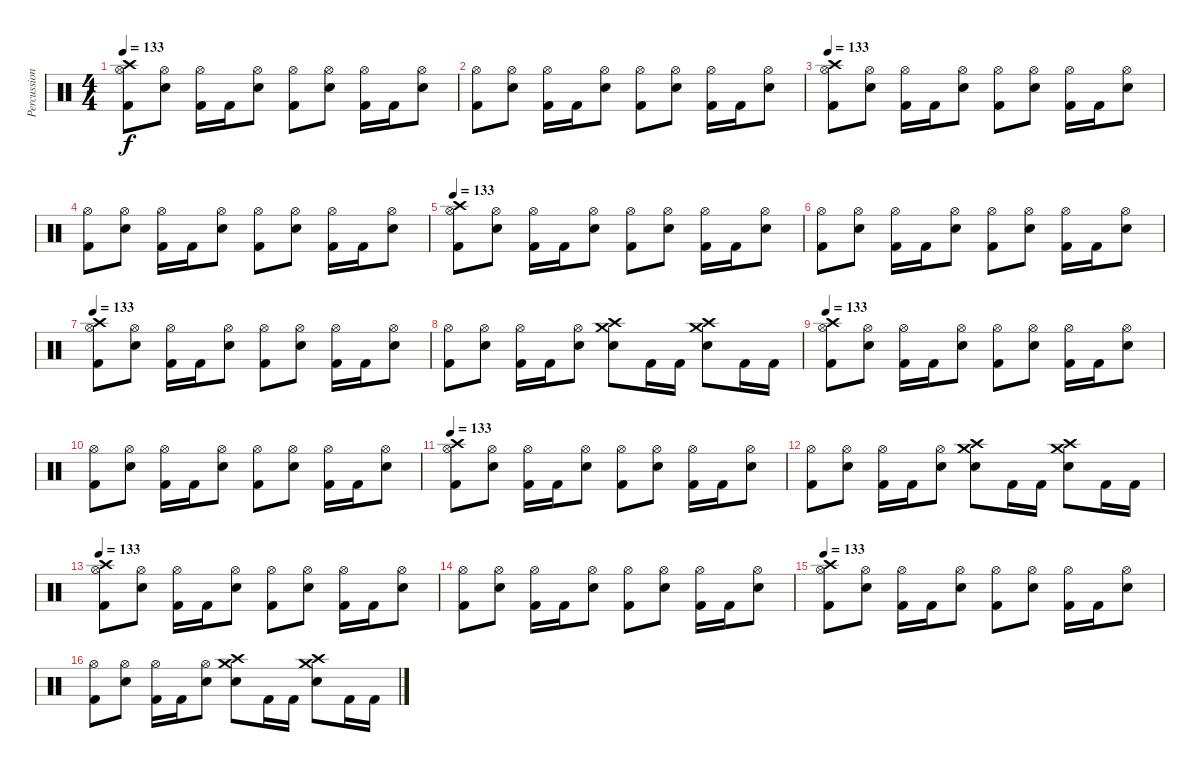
\track ("Percussion" "Percussion") {instrument percussion}
\staff {score}
\articulation defaults
\ts (4 4)
\section ("" "")
\tempo 133
\clef neutral
\ks c
("Crash high (hit)" "Hi-Hat (open)" "Kick (hit) 2").8{dy f} ("Hi-Hat (open)" "Snare (hit) 2").8 ("Hi-Hat (open)" "Kick (hit) 2").16 "Kick (hit) 2".16 ("Hi-Hat (open)" "Snare (hit) 2").8 ("Hi-Hat (open)" "Kick (hit) 2").8 ("Hi-Hat (open)" "Snare (hit) 2").8 ("Hi-Hat (open)" "Kick (hit) 2").16 "Kick (hit) 2".16 ("Hi-Hat (open)" "Snare (hit) 2").8 |
("Hi-Hat (open)" "Kick (hit) 2").8 ("Hi-Hat (open)" "Snare (hit) 2").8 ("Hi-Hat (open)" "Kick (hit) 2").16 "Kick (hit) 2".16 ("Hi-Hat (open)" "Snare (hit) 2").8 ("Hi-Hat (open)" "Kick (hit) 2").8 ("Hi-Hat (open)" "Snare (hit) 2").8 ("Hi-Hat (open)" "Kick (hit) 2").16 "Kick (hit) 2".16 ("Hi-Hat (open)" "Snare (hit) 2").8 |
\tempo 133
("Crash high (hit)" "Hi-Hat (open)" "Kick (hit) 2").8 ("Hi-Hat (open)" "Snare (hit) 2").8 ("Hi-Hat (open)" "Kick (hit) 2").16 "Kick (hit) 2".16 ("Hi-Hat (open)" "Snare (hit) 2").8 ("Hi-Hat (open)" "Kick (hit) 2").8 ("Hi-Hat (open)" "Snare (hit) 2").8 ("Hi-Hat (open)" "Kick (hit) 2").16 "Kick (hit) 2".16 ("Hi-Hat (open)" "Snare (hit) 2").8 |
("Hi-Hat (open)" "Kick (hit) 2").8 ("Hi-Hat (open)" "Snare (hit) 2").8 ("Hi-Hat (open)" "Kick (hit) 2").16 "Kick (hit) 2".16 ("Hi-Hat (open)" "Snare (hit) 2").8 ("Hi-Hat (open)" "Kick (hit) 2").8 ("Hi-Hat (open)" "Snare (hit) 2").8 ("Hi-Hat (open)" "Kick (hit) 2").16 "Kick (hit) 2".16 ("Hi-Hat (open)" "Snare (hit) 2").8 |
\tempo 133
("Crash high (hit)" "Hi-Hat (open)" "Kick (hit) 2").8 ("Hi-Hat (open)" "Snare (hit) 2").8 ("Hi-Hat (open)" "Kick (hit) 2").16 "Kick (hit) 2".16 ("Hi-Hat (open)" "Snare (hit) 2").8 ("Hi-Hat (open)" "Kick (hit) 2").8 ("Hi-Hat (open)" "Snare (hit) 2").8 ("Hi-Hat (open)" "Kick (hit) 2").16 "Kick (hit) 2".16 ("Hi-Hat (open)" "Snare (hit) 2").8 |
("Hi-Hat (open)" "Kick (hit) 2").8 ("Hi-Hat (open)" "Snare (hit) 2").8 ("Hi-Hat (open)" "Kick (hit) 2").16 "Kick (hit) 2".16 ("Hi-Hat (open)" "Snare (hit) 2").8 ("Hi-Hat (open)" "Kick (hit) 2").8 ("Hi-Hat (open)" "Snare (hit) 2").8 ("Hi-Hat (open)" "Kick (hit) 2").16 "Kick (hit) 2".16 ("Hi-Hat (open)" "Snare (hit) 2").8 |
\tempo 133
("Crash high (hit)" "Hi-Hat (open)" "Kick (hit) 2").8 ("Hi-Hat (open)" "Snare (hit) 2").8 ("Hi-Hat (open)" "Kick (hit) 2").16 "Kick (hit) 2".16 ("Hi-Hat (open)" "Snare (hit) 2").8 ("Hi-Hat (open)" "Kick (hit) 2").8 ("Hi-Hat (open)" "Snare (hit) 2").8 ("Hi-Hat (open)" "Kick (hit) 2").16 "Kick (hit) 2".16 ("Hi-Hat (open)" "Snare (hit) 2").8 |
("Hi-Hat (open)" "Kick (hit) 2").8 ("Hi-Hat (open)" "Snare (hit) 2").8 ("Hi-Hat (open)" "Kick (hit) 2").16 "Kick (hit) 2".16 ("Hi-Hat (open)" "Snare (hit) 2").8 ("Crash medium (hit)" "Crash high (hit)" "Snare (hit) 2").8 "Kick (hit) 2".16 "Kick (hit) 2".16 ("Crash high (hit)" "Crash medium (hit)" "Snare (hit) 2").8 "Kick (hit) 2".16 "Kick (hit) 2".16 |
\tempo 133
("Crash high (hit)" "Hi-Hat (open)" "Kick (hit) 2").8 ("Hi-Hat (open)" "Snare (hit) 2").8 ("Hi-Hat (open)" "Kick (hit) 2").16 "Kick (hit) 2".16 ("Hi-Hat (open)" "Snare (hit) 2").8 ("Hi-Hat (open)" "Kick (hit) 2").8 ("Hi-Hat (open)" "Snare (hit) 2").8 ("Hi-Hat (open)" "Kick (hit) 2").16 "Kick (hit) 2".16 ("Hi-Hat (open)" "Snare (hit) 2").8 |
("Hi-Hat (open)" "Kick (hit) 2").8 ("Hi-Hat (open)" "Snare (hit) 2").8 ("Hi-Hat (open)" "Kick (hit) 2").16 "Kick (hit) 2".16 ("Hi-Hat (open)" "Snare (hit) 2").8 ("Hi-Hat (open)" "Kick (hit) 2").8 ("Hi-Hat (open)" "Snare (hit) 2").8 ("Hi-Hat (open)" "Kick (hit) 2").16 "Kick (hit) 2".16 ("Hi-Hat (open)" "Snare (hit) 2").8 |
\tempo 133
("Crash high (hit)" "Hi-Hat (open)" "Kick (hit) 2").8 ("Hi-Hat (open)" "Snare (hit) 2").8 ("Hi-Hat (open)" "Kick (hit) 2").16 "Kick (hit) 2".16 ("Hi-Hat (open)" "Snare (hit) 2").8 ("Hi-Hat (open)" "Kick (hit) 2").8 ("Hi-Hat (open)" "Snare (hit) 2").8 ("Hi-Hat (open)" "Kick (hit) 2").16 "Kick (hit) 2".16 ("Hi-Hat (open)" "Snare (hit) 2").8 |
("Hi-Hat (open)" "Kick (hit) 2").8 ("Hi-Hat (open)" "Snare (hit) 2").8 ("Hi-Hat (open)" "Kick (hit) 2").16 "Kick (hit) 2".16 ("Hi-Hat (open)" "Snare (hit) 2").8 ("Crash medium (hit)" "Crash high (hit)" "Snare (hit) 2").8 "Kick (hit) 2".16 "Kick (hit) 2".16 ("Crash high (hit)" "Crash medium (hit)" "Snare (hit) 2").8 "Kick (hit) 2".16 "Kick (hit) 2".16 |
\tempo 133
("Crash high (hit)" "Hi-Hat (open)" "Kick (hit) 2").8 ("Hi-Hat (open)" "Snare (hit) 2").8 ("Hi-Hat (open)" "Kick (hit) 2").16 "Kick (hit) 2".16 ("Hi-Hat (open)" "Snare (hit) 2").8 ("Hi-Hat (open)" "Kick (hit) 2").8 ("Hi-Hat (open)" "Snare (hit) 2").8 ("Hi-Hat (open)" "Kick (hit) 2").16 "Kick (hit) 2".16 ("Hi-Hat (open)" "Snare (hit) 2").8 |
("Hi-Hat (open)" "Kick (hit) 2").8 ("Hi-Hat (open)" "Snare (hit) 2").8 ("Hi-Hat (open)" "Kick (hit) 2").16 "Kick (hit) 2".16 ("Hi-Hat (open)" "Snare (hit) 2").8 ("Hi-Hat (open)" "Kick (hit) 2").8 ("Hi-Hat (open)" "Snare (hit) 2").8 ("Hi-Hat (open)" "Kick (hit) 2").16 "Kick (hit) 2".16 ("Hi-Hat (open)" "Snare (hit) 2").8 |
\tempo 133
("Crash high (hit)" "Hi-Hat (open)" "Kick (hit) 2").8 ("Hi-Hat (open)" "Snare (hit) 2").8 ("Hi-Hat (open)" "Kick (hit) 2").16 "Kick (hit) 2".16 ("Hi-Hat (open)" "Snare (hit) 2").8 ("Hi-Hat (open)" "Kick (hit) 2").8 ("Hi-Hat (open)" "Snare (hit) 2").8 ("Hi-Hat (open)" "Kick (hit) 2").16 "Kick (hit) 2".16 ("Hi-Hat (open)" "Snare (hit) 2").8 |
("Hi-Hat (open)" "Kick (hit) 2").8 ("Hi-Hat (open)" "Snare (hit) 2").8 ("Hi-Hat (open)" "Kick (hit) 2").16 "Kick (hit) 2".16 ("Hi-Hat (open)" "Snare (hit) 2").8 ("Crash medium (hit)" "Crash high (hit)" "Snare (hit) 2").8 "Kick (hit) 2".16 "Kick (hit) 2".16 ("Crash high (hit)" "Crash medium (hit)" "Snare (hit) 2").8 "Kick (hit) 2".16 "Kick (hit) 2".16
